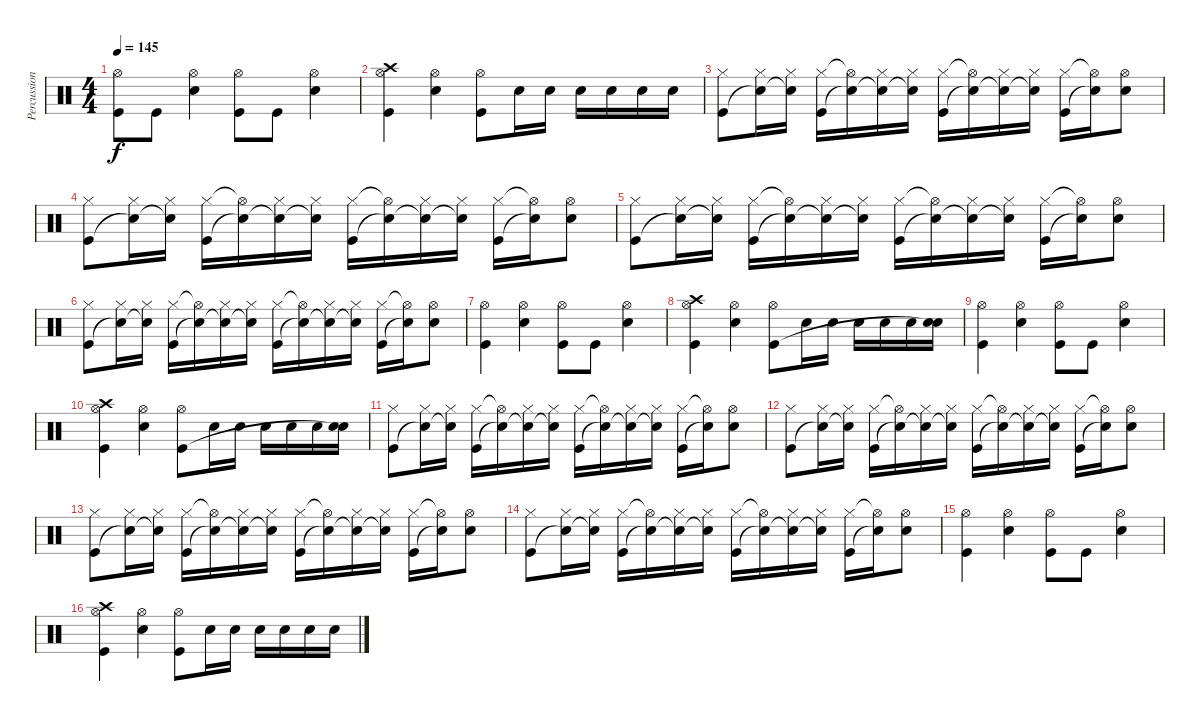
\track ("Percussion" "Percussion") {instrument percussion}
\staff {score}
\articulation defaults
\ts (4 4)
\tempo 145
\clef neutral
\ks c
("Hi-Hat (open)" "Kick (hit)").8{dy f} "Kick (hit)".8 ("Hi-Hat (open)" "Snare (hit) 2").4 ("Hi-Hat (open)" "Kick (hit)").8 "Kick (hit)".8 ("Hi-Hat (open)" "Snare (hit) 2").4 |
("Kick (hit)" "Hi-Hat (open)" "Crash high (hit)").4 ("Hi-Hat (open)" "Snare (hit) 2").4 ("Hi-Hat (open)" "Kick (hit)").8 "Snare (hit) 2".16 "Snare (hit) 2".16 "Snare (hit) 2".16 "Snare (hit) 2".16 "Snare (hit) 2".16 "Snare (hit) 2".16 |
("Hi-Hat (closed)" "Kick (hit)").8 ("Hi-Hat (closed)" "Snare (hit)"{t}).16 ("Hi-Hat (closed)" "Snare (hit)"{t}).16 ("Hi-Hat (closed)" "Kick (hit)").16 ("Hi-Hat (open)"{t} "Snare (hit)"{t}).16 ("Hi-Hat (closed)" "Snare (hit)"{t}).16 ("Hi-Hat (closed)" "Snare (hit)"{t}).16 ("Hi-Hat (closed)" "Kick (hit)").16 ("Hi-Hat (open)"{t} "Snare (hit)"{t}).16 ("Hi-Hat (closed)" "Snare (hit)"{t}).16 ("Hi-Hat (closed)" "Snare (hit)"{t}).16 ("Hi-Hat (closed)" "Kick (hit)").16 ("Hi-Hat (open)"{t} "Snare (hit)"{t}).16 ("Hi-Hat (open)" "Electric Snare (hit)").8 |
("Hi-Hat (closed)" "Kick (hit)").8 ("Hi-Hat (closed)" "Snare (hit)"{t}).16 ("Hi-Hat (closed)" "Snare (hit)"{t}).16 ("Hi-Hat (closed)" "Kick (hit)").16 ("Hi-Hat (open)"{t} "Snare (hit)"{t}).16 ("Hi-Hat (closed)" "Snare (hit)"{t}).16 ("Hi-Hat (closed)" "Snare (hit)"{t}).16 ("Hi-Hat (closed)" "Kick (hit)").16 ("Hi-Hat (open)"{t} "Snare (hit)"{t}).16 ("Hi-Hat (closed)" "Snare (hit)"{t}).16 ("Hi-Hat (closed)" "Snare (hit)"{t}).16 ("Hi-Hat (closed)" "Kick (hit)").16 ("Hi-Hat (open)"{t} "Snare (hit)"{t}).16 ("Hi-Hat (open)" "Electric Snare (hit)").8 |
("Hi-Hat (closed)" "Kick (hit)").8 ("Hi-Hat (closed)" "Snare (hit)"{t}).16 ("Hi-Hat (closed)" "Snare (hit)"{t}).16 ("Hi-Hat (closed)" "Kick (hit)").16 ("Hi-Hat (open)"{t} "Snare (hit)"{t}).16 ("Hi-Hat (closed)" "Snare (hit)"{t}).16 ("Hi-Hat (closed)" "Snare (hit)"{t}).16 ("Hi-Hat (closed)" "Kick (hit)").16 ("Hi-Hat (open)"{t} "Snare (hit)"{t}).16 ("Hi-Hat (closed)" "Snare (hit)"{t}).16 ("Hi-Hat (closed)" "Snare (hit)"{t}).16 ("Hi-Hat (closed)" "Kick (hit)").16 ("Hi-Hat (open)"{t} "Snare (hit)"{t}).16 ("Hi-Hat (open)" "Electric Snare (hit)").8 |
("Hi-Hat (closed)" "Kick (hit)").8 ("Hi-Hat (closed)" "Snare (hit)"{t}).16 ("Hi-Hat (closed)" "Snare (hit)"{t}).16 ("Hi-Hat (closed)" "Kick (hit)").16 ("Hi-Hat (open)"{t} "Snare (hit)"{t}).16 ("Hi-Hat (closed)" "Snare (hit)"{t}).16 ("Hi-Hat (closed)" "Snare (hit)"{t}).16 ("Hi-Hat (closed)" "Kick (hit)").16 ("Hi-Hat (open)"{t} "Snare (hit)"{t}).16 ("Hi-Hat (closed)" "Snare (hit)"{t}).16 ("Hi-Hat (closed)" "Snare (hit)"{t}).16 ("Hi-Hat (closed)" "Kick (hit)").16 ("Hi-Hat (open)"{t} "Snare (hit)"{t}).16 ("Hi-Hat (open)" "Electric Snare (hit)").8 |
("Kick (hit)" "Hi-Hat (open)").4 ("Hi-Hat (open)" "Snare (hit) 2").4 ("Hi-Hat (open)" "Kick (hit)").8 "Kick (hit)".8 ("Hi-Hat (open)" "Snare (hit) 2").4 |
("Kick (hit)" "Hi-Hat (open)" "Crash high (hit)").4 ("Hi-Hat (open)" "Snare (hit) 2").4 ("Hi-Hat (open)" "Kick (hit)").8 "Snare (hit) 2".16 "Snare (hit) 2".16 "Snare (hit) 2".16 "Snare (hit) 2".16 "Snare (hit) 2".16 ("Snare (hit) 2" "Snare (hit)"{t}).16 |
("Kick (hit)" "Hi-Hat (open)").4 ("Hi-Hat (open)" "Snare (hit) 2").4 ("Hi-Hat (open)" "Kick (hit)").8 "Kick (hit)".8 ("Hi-Hat (open)" "Snare (hit) 2").4 |
("Kick (hit)" "Hi-Hat (open)" "Crash high (hit)").4 ("Hi-Hat (open)" "Snare (hit) 2").4 ("Hi-Hat (open)" "Kick (hit)").8 "Snare (hit) 2".16 "Snare (hit) 2".16 "Snare (hit) 2".16 "Snare (hit) 2".16 "Snare (hit) 2".16 ("Snare (hit) 2" "Snare (hit)"{t}).16 |
("Hi-Hat (closed)" "Kick (hit)").8 ("Hi-Hat (closed)" "Snare (hit)"{t}).16 ("Hi-Hat (closed)" "Snare (hit)"{t}).16 ("Hi-Hat (closed)" "Kick (hit)").16 ("Hi-Hat (open)"{t} "Snare (hit)"{t}).16 ("Hi-Hat (closed)" "Snare (hit)"{t}).16 ("Hi-Hat (closed)" "Snare (hit)"{t}).16 ("Hi-Hat (closed)" "Kick (hit)").16 ("Hi-Hat (open)"{t} "Snare (hit)"{t}).16 ("Hi-Hat (closed)" "Snare (hit)"{t}).16 ("Hi-Hat (closed)" "Snare (hit)"{t}).16 ("Hi-Hat (closed)" "Kick (hit)").16 ("Hi-Hat (open)"{t} "Snare (hit)"{t}).16 ("Hi-Hat (open)" "Electric Snare (hit)").8 |
("Hi-Hat (closed)" "Kick (hit)").8 ("Hi-Hat (closed)" "Snare (hit)"{t}).16 ("Hi-Hat (closed)" "Snare (hit)"{t}).16 ("Hi-Hat (closed)" "Kick (hit)").16 ("Hi-Hat (open)"{t} "Snare (hit)"{t}).16 ("Hi-Hat (closed)" "Snare (hit)"{t}).16 ("Hi-Hat (closed)" "Snare (hit)"{t}).16 ("Hi-Hat (closed)" "Kick (hit)").16 ("Hi-Hat (open)"{t} "Snare (hit)"{t}).16 ("Hi-Hat (closed)" "Snare (hit)"{t}).16 ("Hi-Hat (closed)" "Snare (hit)"{t}).16 ("Hi-Hat (closed)" "Kick (hit)").16 ("Hi-Hat (open)"{t} "Snare (hit)"{t}).16 ("Hi-Hat (open)" "Electric Snare (hit)").8 |
("Hi-Hat (closed)" "Kick (hit)").8 ("Hi-Hat (closed)" "Snare (hit)"{t}).16 ("Hi-Hat (closed)" "Snare (hit)"{t}).16 ("Hi-Hat (closed)" "Kick (hit)").16 ("Hi-Hat (open)"{t} "Snare (hit)"{t}).16 ("Hi-Hat (closed)" "Snare (hit)"{t}).16 ("Hi-Hat (closed)" "Snare (hit)"{t}).16 ("Hi-Hat (closed)" "Kick (hit)").16 ("Hi-Hat (open)"{t} "Snare (hit)"{t}).16 ("Hi-Hat (closed)" "Snare (hit)"{t}).16 ("Hi-Hat (closed)" "Snare (hit)"{t}).16 ("Hi-Hat (closed)" "Kick (hit)").16 ("Hi-Hat (open)"{t} "Snare (hit)"{t}).16 ("Hi-Hat (open)" "Electric Snare (hit)").8 |
("Hi-Hat (closed)" "Kick (hit)").8 ("Hi-Hat (closed)" "Snare (hit)"{t}).16 ("Hi-Hat (closed)" "Snare (hit)"{t}).16 ("Hi-Hat (closed)" "Kick (hit)").16 ("Hi-Hat (open)"{t} "Snare (hit)"{t}).16 ("Hi-Hat (closed)" "Snare (hit)"{t}).16 ("Hi-Hat (closed)" "Snare (hit)"{t}).16 ("Hi-Hat (closed)" "Kick (hit)").16 ("Hi-Hat (open)"{t} "Snare (hit)"{t}).16 ("Hi-Hat (closed)" "Snare (hit)"{t}).16 ("Hi-Hat (closed)" "Snare (hit)"{t}).16 ("Hi-Hat (closed)" "Kick (hit)").16 ("Hi-Hat (open)"{t} "Snare (hit)"{t}).16 ("Hi-Hat (open)" "Electric Snare (hit)").8 |
("Kick (hit)" "Hi-Hat (open)").4 ("Hi-Hat (open)" "Snare (hit) 2").4 ("Hi-Hat (open)" "Kick (hit)").8 "Kick (hit)".8 ("Hi-Hat (open)" "Snare (hit) 2").4 |
("Kick (hit)" "Hi-Hat (open)" "Crash high (hit)").4 ("Hi-Hat (open)" "Snare (hit) 2").4 ("Hi-Hat (open)" "Kick (hit)").8 "Snare (hit) 2".16 "Snare (hit) 2".16 "Snare (hit) 2".16 "Snare (hit) 2".16 "Snare (hit) 2".16 "Snare (hit) 2".16
